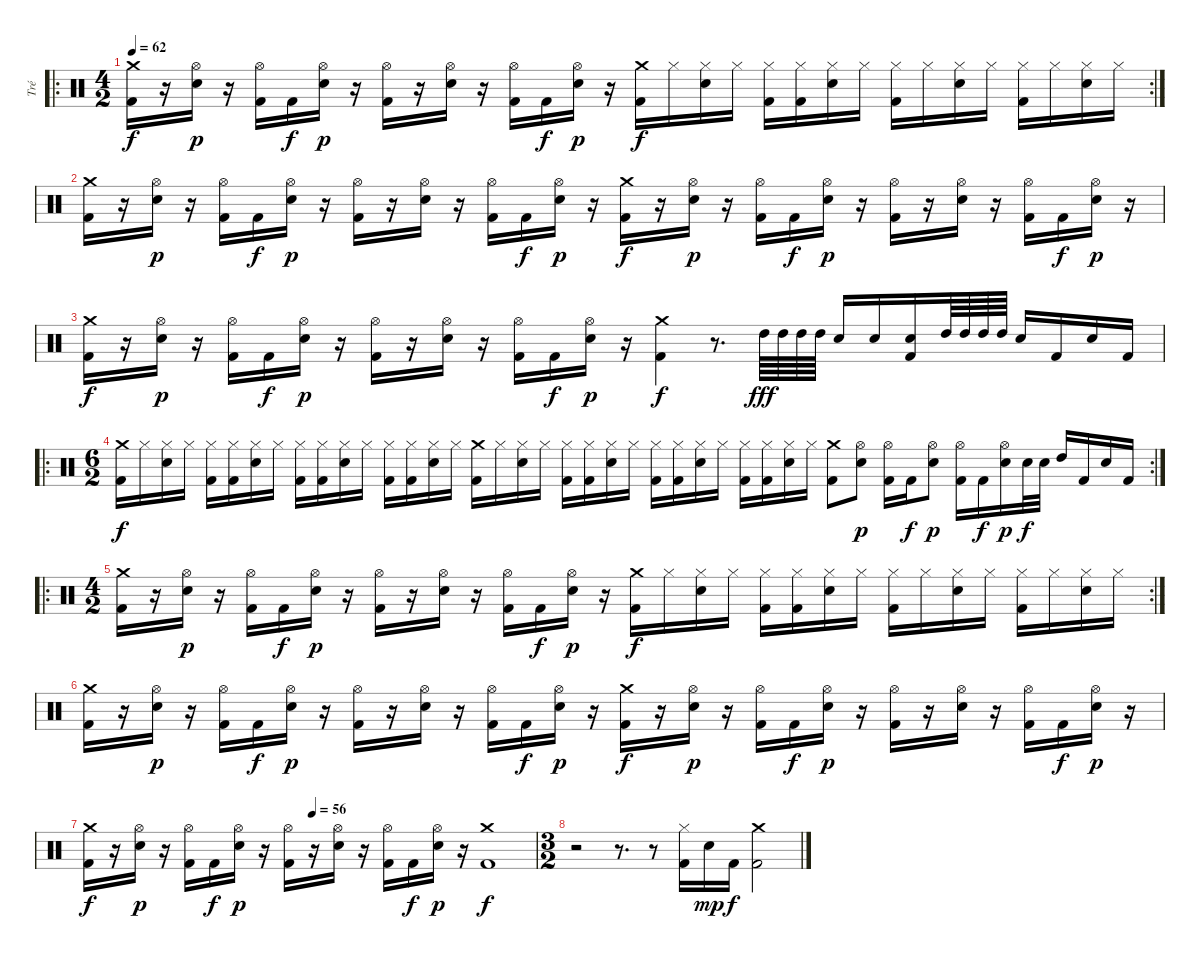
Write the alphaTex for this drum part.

\track ("Tré" "Tré") {instrument percussion}
\staff {score}
\articulation defaults
\ro
\rc 2
\ts (4 2)
\tempo 62
\clef neutral
\ks c
("Crash medium (hit)" "Kick (hit) 2").16{dy f} r.16 ("Hi-Hat (open)" "Snare (hit) 2").16{dy p} r.16 ("Hi-Hat (open)" "Kick (hit) 2").16 "Kick (hit) 2".16{dy f} ("Hi-Hat (open)" "Snare (hit) 2").16{dy p} r.16 ("Hi-Hat (open)" "Kick (hit) 2").16 r.16 ("Hi-Hat (open)" "Snare (hit) 2").16 r.16 ("Hi-Hat (open)" "Kick (hit) 2").16 "Kick (hit) 2".16{dy f} ("Hi-Hat (open)" "Snare (hit) 2").16{dy p} r.16 ("Crash medium (hit)" "Kick (hit) 2").16{dy f} "Hi-Hat (closed)".16 ("Hi-Hat (closed)" "Snare (hit) 2").16 "Hi-Hat (closed)".16 ("Hi-Hat (closed)" "Kick (hit) 2").16 ("Hi-Hat (closed)" "Kick (hit) 2").16 ("Hi-Hat (closed)" "Snare (hit) 2").16 "Hi-Hat (closed)".16 ("Hi-Hat (closed)" "Kick (hit) 2").16 "Hi-Hat (closed)".16 ("Hi-Hat (closed)" "Snare (hit) 2").16 "Hi-Hat (closed)".16 ("Hi-Hat (closed)" "Kick (hit) 2").16 "Hi-Hat (closed)".16 ("Hi-Hat (closed)" "Snare (hit) 2").16 "Hi-Hat (closed)".16 |
("Crash medium (hit)" "Kick (hit) 2").16 r.16 ("Hi-Hat (open)" "Snare (hit) 2").16{dy p} r.16 ("Hi-Hat (open)" "Kick (hit) 2").16 "Kick (hit) 2".16{dy f} ("Hi-Hat (open)" "Snare (hit) 2").16{dy p} r.16 ("Hi-Hat (open)" "Kick (hit) 2").16 r.16 ("Hi-Hat (open)" "Snare (hit) 2").16 r.16 ("Hi-Hat (open)" "Kick (hit) 2").16 "Kick (hit) 2".16{dy f} ("Hi-Hat (open)" "Snare (hit) 2").16{dy p} r.16 ("Crash medium (hit)" "Kick (hit) 2").16{dy f} r.16 ("Hi-Hat (open)" "Snare (hit) 2").16{dy p} r.16 ("Hi-Hat (open)" "Kick (hit) 2").16 "Kick (hit) 2".16{dy f} ("Hi-Hat (open)" "Snare (hit) 2").16{dy p} r.16 ("Hi-Hat (open)" "Kick (hit) 2").16 r.16 ("Hi-Hat (open)" "Snare (hit) 2").16 r.16 ("Hi-Hat (open)" "Kick (hit) 2").16 "Kick (hit) 2".16{dy f} ("Hi-Hat (open)" "Snare (hit) 2").16{dy p} r.16 |
("Crash medium (hit)" "Kick (hit) 2").16{dy f} r.16 ("Hi-Hat (open)" "Snare (hit) 2").16{dy p} r.16 ("Hi-Hat (open)" "Kick (hit) 2").16 "Kick (hit) 2".16{dy f} ("Hi-Hat (open)" "Snare (hit) 2").16{dy p} r.16 ("Hi-Hat (open)" "Kick (hit) 2").16 r.16 ("Hi-Hat (open)" "Snare (hit) 2").16 r.16 ("Hi-Hat (open)" "Kick (hit) 2").16 "Kick (hit) 2".16{dy f} ("Hi-Hat (open)" "Snare (hit) 2").16{dy p} r.16 ("Crash medium (hit)" "Kick (hit) 2").4{dy f} r.8{d} "High Tom (hit)".64{dy fff} "High Tom (hit)".64 "High Tom (hit)".64 "High Tom (hit)".64 "Snare (hit) 2".16 "Snare (hit) 2".16 ("Snare (hit) 2" "Kick (hit) 2").16 "High Tom (hit)".64 "High Tom (hit)".64 "High Tom (hit)".64 "High Tom (hit)".64 "Snare (hit) 2".16 "Kick (hit) 2".16 "Snare (hit) 2".16 "Kick (hit) 2".16 |
\ro
\rc 2
\ts (6 2)
("Crash medium (hit)" "Kick (hit) 2").16{dy f} "Hi-Hat (closed)".16 ("Hi-Hat (closed)" "Snare (hit) 2").16 "Hi-Hat (closed)".16 ("Hi-Hat (closed)" "Kick (hit) 2").16 ("Hi-Hat (closed)" "Kick (hit) 2").16 ("Hi-Hat (closed)" "Snare (hit) 2").16 "Hi-Hat (closed)".16 ("Hi-Hat (closed)" "Kick (hit) 2").16 ("Hi-Hat (closed)" "Kick (hit) 2").16 ("Hi-Hat (closed)" "Snare (hit) 2").16 "Hi-Hat (closed)".16 ("Hi-Hat (closed)" "Kick (hit) 2").16 ("Hi-Hat (closed)" "Kick (hit) 2").16 ("Hi-Hat (closed)" "Snare (hit) 2").16 "Hi-Hat (closed)".16 ("Crash medium (hit)" "Kick (hit) 2").16 "Hi-Hat (closed)".16 ("Hi-Hat (closed)" "Snare (hit) 2").16 "Hi-Hat (closed)".16 ("Hi-Hat (closed)" "Kick (hit) 2").16 ("Hi-Hat (closed)" "Kick (hit) 2").16 ("Hi-Hat (closed)" "Snare (hit) 2").16 "Hi-Hat (closed)".16 ("Hi-Hat (closed)" "Kick (hit) 2").16 ("Hi-Hat (closed)" "Kick (hit) 2").16 ("Hi-Hat (closed)" "Snare (hit) 2").16 "Hi-Hat (closed)".16 ("Hi-Hat (closed)" "Kick (hit) 2").16 ("Hi-Hat (closed)" "Kick (hit) 2").16 ("Hi-Hat (closed)" "Snare (hit) 2").16 "Hi-Hat (closed)".16 ("Crash medium (hit)" "Kick (hit) 2").8 ("Hi-Hat (open)" "Snare (hit) 2").8{dy p} ("Hi-Hat (open)" "Kick (hit) 2").16 "Kick (hit) 2".16{dy f} ("Hi-Hat (open)" "Snare (hit) 2").8{dy p} ("Hi-Hat (open)" "Kick (hit) 2").16 "Kick (hit) 2".16{dy f} ("Hi-Hat (open)" "Snare (hit) 2").16{dy p} "Snare (hit) 2".32{dy f} "Snare (hit) 2".32 "High Tom (hit)".16 "Kick (hit) 2".16 "Snare (hit) 2".16 "Kick (hit) 2".16 |
\ro
\rc 2
\ts (4 2)
("Crash medium (hit)" "Kick (hit) 2").16 r.16 ("Hi-Hat (open)" "Snare (hit) 2").16{dy p} r.16 ("Hi-Hat (open)" "Kick (hit) 2").16 "Kick (hit) 2".16{dy f} ("Hi-Hat (open)" "Snare (hit) 2").16{dy p} r.16 ("Hi-Hat (open)" "Kick (hit) 2").16 r.16 ("Hi-Hat (open)" "Snare (hit) 2").16 r.16 ("Hi-Hat (open)" "Kick (hit) 2").16 "Kick (hit) 2".16{dy f} ("Hi-Hat (open)" "Snare (hit) 2").16{dy p} r.16 ("Crash medium (hit)" "Kick (hit) 2").16{dy f} "Hi-Hat (closed)".16 ("Hi-Hat (closed)" "Snare (hit) 2").16 "Hi-Hat (closed)".16 ("Hi-Hat (closed)" "Kick (hit) 2").16 ("Hi-Hat (closed)" "Kick (hit) 2").16 ("Hi-Hat (closed)" "Snare (hit) 2").16 "Hi-Hat (closed)".16 ("Hi-Hat (closed)" "Kick (hit) 2").16 "Hi-Hat (closed)".16 ("Hi-Hat (closed)" "Snare (hit) 2").16 "Hi-Hat (closed)".16 ("Hi-Hat (closed)" "Kick (hit) 2").16 "Hi-Hat (closed)".16 ("Hi-Hat (closed)" "Snare (hit) 2").16 "Hi-Hat (closed)".16 |
("Crash medium (hit)" "Kick (hit) 2").16 r.16 ("Hi-Hat (open)" "Snare (hit) 2").16{dy p} r.16 ("Hi-Hat (open)" "Kick (hit) 2").16 "Kick (hit) 2".16{dy f} ("Hi-Hat (open)" "Snare (hit) 2").16{dy p} r.16 ("Hi-Hat (open)" "Kick (hit) 2").16 r.16 ("Hi-Hat (open)" "Snare (hit) 2").16 r.16 ("Hi-Hat (open)" "Kick (hit) 2").16 "Kick (hit) 2".16{dy f} ("Hi-Hat (open)" "Snare (hit) 2").16{dy p} r.16 ("Crash medium (hit)" "Kick (hit) 2").16{dy f} r.16 ("Hi-Hat (open)" "Snare (hit) 2").16{dy p} r.16 ("Hi-Hat (open)" "Kick (hit) 2").16 "Kick (hit) 2".16{dy f} ("Hi-Hat (open)" "Snare (hit) 2").16{dy p} r.16 ("Hi-Hat (open)" "Kick (hit) 2").16 r.16 ("Hi-Hat (open)" "Snare (hit) 2").16 r.16 ("Hi-Hat (open)" "Kick (hit) 2").16 "Kick (hit) 2".16{dy f} ("Hi-Hat (open)" "Snare (hit) 2").16{dy p} r.16 |
\tempo (56 0.5)
("Crash medium (hit)" "Kick (hit) 2").16{dy f} r.16 ("Hi-Hat (open)" "Snare (hit) 2").16{dy p} r.16 ("Hi-Hat (open)" "Kick (hit) 2").16 "Kick (hit) 2".16{dy f} ("Hi-Hat (open)" "Snare (hit) 2").16{dy p} r.16 ("Hi-Hat (open)" "Kick (hit) 2").16 r.16 ("Hi-Hat (open)" "Snare (hit) 2").16 r.16 ("Hi-Hat (open)" "Kick (hit) 2").16 "Kick (hit) 2".16{dy f} ("Hi-Hat (open)" "Snare (hit) 2").16{dy p} r.16 ("Crash medium (hit)" "Kick (hit) 2").1{dy f} |
\ts (3 2)
r.2 r.8{d} r.8 ("Hi-Hat (closed)" "Kick (hit) 2").16 "Snare (hit) 2".16{dy mp} "Kick (hit) 2".16{dy f} ("Crash medium (hit)" "Kick (hit) 2").2
